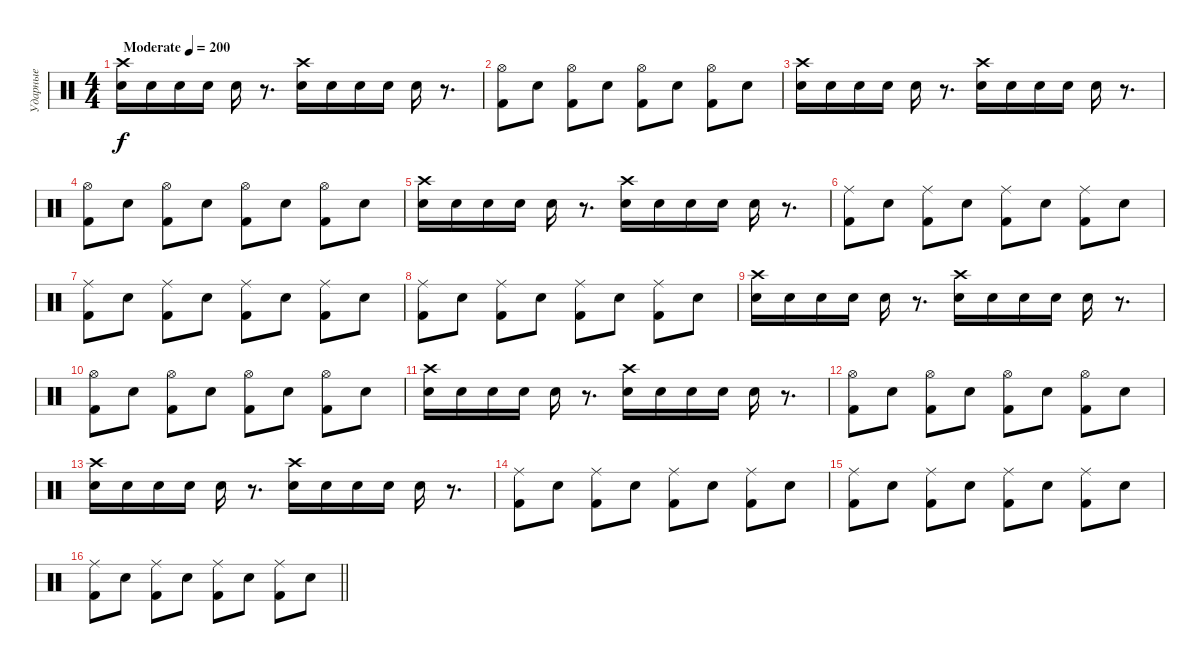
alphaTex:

\track ("Ударные" "Ударные") {instrument percussion}
\staff {score}
\articulation defaults
\ts (4 4)
\tempo (200 "Moderate")
\clef neutral
\ks c
("Crash high (hit)" "Snare (hit) 2").16{dy f} "Snare (hit) 2".16 "Snare (hit) 2".16 "Snare (hit) 2".16 "Snare (hit) 2".16 r.8{d} ("Crash high (hit)" "Snare (hit) 2").16 "Snare (hit) 2".16 "Snare (hit) 2".16 "Snare (hit) 2".16 "Snare (hit) 2".16 r.8{d} |
("Hi-Hat (open)" "Kick (hit) 2").8 "Snare (hit) 2".8 ("Hi-Hat (open)" "Kick (hit) 2").8 "Snare (hit) 2".8 ("Hi-Hat (open)" "Kick (hit) 2").8 "Snare (hit) 2".8 ("Hi-Hat (open)" "Kick (hit) 2").8 "Snare (hit) 2".8 |
("Crash high (hit)" "Snare (hit) 2").16 "Snare (hit) 2".16 "Snare (hit) 2".16 "Snare (hit) 2".16 "Snare (hit) 2".16 r.8{d} ("Crash high (hit)" "Snare (hit) 2").16 "Snare (hit) 2".16 "Snare (hit) 2".16 "Snare (hit) 2".16 "Snare (hit) 2".16 r.8{d} |
("Hi-Hat (open)" "Kick (hit) 2").8 "Snare (hit) 2".8 ("Hi-Hat (open)" "Kick (hit) 2").8 "Snare (hit) 2".8 ("Hi-Hat (open)" "Kick (hit) 2").8 "Snare (hit) 2".8 ("Hi-Hat (open)" "Kick (hit) 2").8 "Snare (hit) 2".8 |
("Crash high (hit)" "Snare (hit) 2").16 "Snare (hit) 2".16 "Snare (hit) 2".16 "Snare (hit) 2".16 "Snare (hit) 2".16 r.8{d} ("Crash high (hit)" "Snare (hit) 2").16 "Snare (hit) 2".16 "Snare (hit) 2".16 "Snare (hit) 2".16 "Snare (hit) 2".16 r.8{d} |
("Ride (middle)" "Kick (hit) 2").8 "Snare (hit) 2".8 ("Ride (middle)" "Kick (hit) 2").8 "Snare (hit) 2".8 ("Ride (middle)" "Kick (hit) 2").8 "Snare (hit) 2".8 ("Ride (middle)" "Kick (hit) 2").8 "Snare (hit) 2".8 |
("Ride (middle)" "Kick (hit) 2").8 "Snare (hit) 2".8 ("Ride (middle)" "Kick (hit) 2").8 "Snare (hit) 2".8 ("Ride (middle)" "Kick (hit) 2").8 "Snare (hit) 2".8 ("Ride (middle)" "Kick (hit) 2").8 "Snare (hit) 2".8 |
("Ride (middle)" "Kick (hit) 2").8 "Snare (hit) 2".8 ("Ride (middle)" "Kick (hit) 2").8 "Snare (hit) 2".8 ("Ride (middle)" "Kick (hit) 2").8 "Snare (hit) 2".8 ("Ride (middle)" "Kick (hit) 2").8 "Snare (hit) 2".8 |
("Crash high (hit)" "Snare (hit) 2").16 "Snare (hit) 2".16 "Snare (hit) 2".16 "Snare (hit) 2".16 "Snare (hit) 2".16 r.8{d} ("Crash high (hit)" "Snare (hit) 2").16 "Snare (hit) 2".16 "Snare (hit) 2".16 "Snare (hit) 2".16 "Snare (hit) 2".16 r.8{d} |
("Hi-Hat (open)" "Kick (hit) 2").8 "Snare (hit) 2".8 ("Hi-Hat (open)" "Kick (hit) 2").8 "Snare (hit) 2".8 ("Hi-Hat (open)" "Kick (hit) 2").8 "Snare (hit) 2".8 ("Hi-Hat (open)" "Kick (hit) 2").8 "Snare (hit) 2".8 |
("Crash high (hit)" "Snare (hit) 2").16 "Snare (hit) 2".16 "Snare (hit) 2".16 "Snare (hit) 2".16 "Snare (hit) 2".16 r.8{d} ("Crash high (hit)" "Snare (hit) 2").16 "Snare (hit) 2".16 "Snare (hit) 2".16 "Snare (hit) 2".16 "Snare (hit) 2".16 r.8{d} |
("Hi-Hat (open)" "Kick (hit) 2").8 "Snare (hit) 2".8 ("Hi-Hat (open)" "Kick (hit) 2").8 "Snare (hit) 2".8 ("Hi-Hat (open)" "Kick (hit) 2").8 "Snare (hit) 2".8 ("Hi-Hat (open)" "Kick (hit) 2").8 "Snare (hit) 2".8 |
("Crash high (hit)" "Snare (hit) 2").16 "Snare (hit) 2".16 "Snare (hit) 2".16 "Snare (hit) 2".16 "Snare (hit) 2".16 r.8{d} ("Crash high (hit)" "Snare (hit) 2").16 "Snare (hit) 2".16 "Snare (hit) 2".16 "Snare (hit) 2".16 "Snare (hit) 2".16 r.8{d} |
("Ride (middle)" "Kick (hit) 2").8 "Snare (hit) 2".8 ("Ride (middle)" "Kick (hit) 2").8 "Snare (hit) 2".8 ("Ride (middle)" "Kick (hit) 2").8 "Snare (hit) 2".8 ("Ride (middle)" "Kick (hit) 2").8 "Snare (hit) 2".8 |
("Ride (middle)" "Kick (hit) 2").8 "Snare (hit) 2".8 ("Ride (middle)" "Kick (hit) 2").8 "Snare (hit) 2".8 ("Ride (middle)" "Kick (hit) 2").8 "Snare (hit) 2".8 ("Ride (middle)" "Kick (hit) 2").8 "Snare (hit) 2".8 |
\barLineRight lightlight
("Ride (middle)" "Kick (hit) 2").8 "Snare (hit) 2".8 ("Ride (middle)" "Kick (hit) 2").8 "Snare (hit) 2".8 ("Ride (middle)" "Kick (hit) 2").8 "Snare (hit) 2".8 ("Ride (middle)" "Kick (hit) 2").8 "Snare (hit) 2".8
